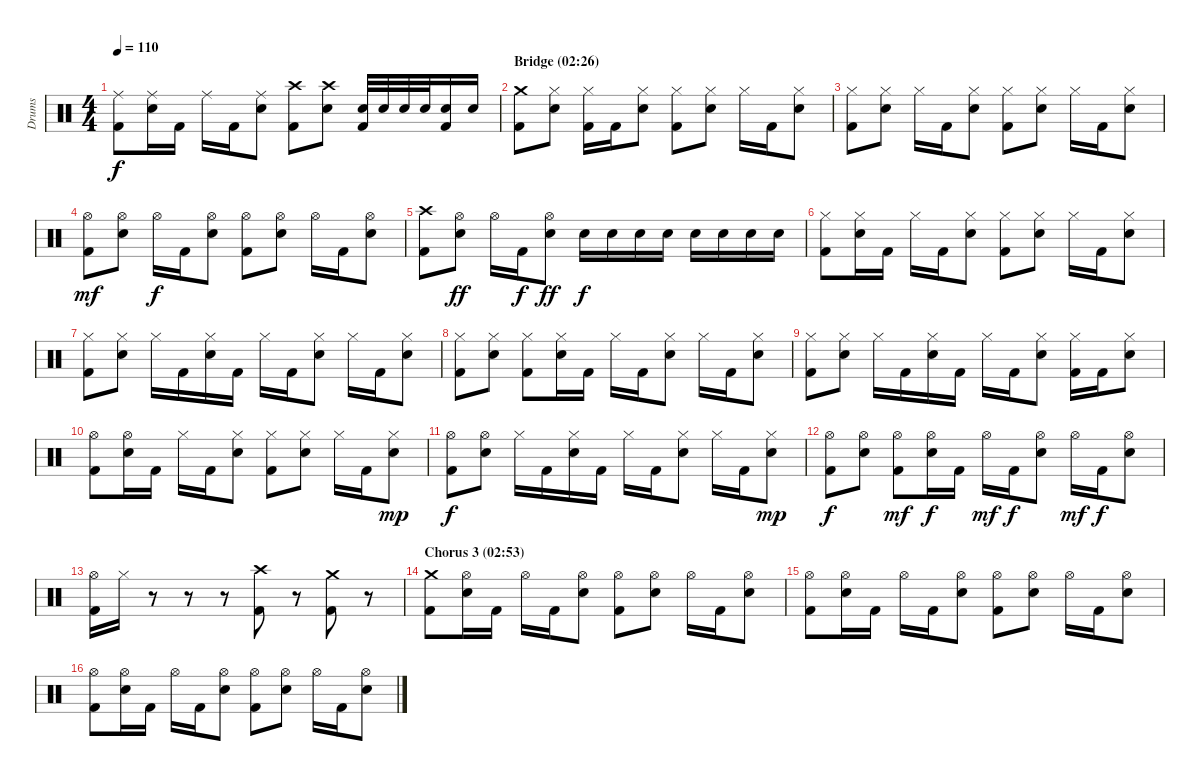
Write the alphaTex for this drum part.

\track ("Drums" "Drums") {instrument percussion}
\staff {score}
\articulation defaults
\ts (4 4)
\tempo 110
\clef neutral
\ks c
("Ride (middle)" "Kick (hit) 2").8{dy f} ("Ride (middle)" "Electric Snare (hit)").16 "Kick (hit) 2".16 "Ride (middle)".16 "Kick (hit) 2".16 ("Ride (middle)" "Electric Snare (hit)").8 ("Crash high (hit)" "Kick (hit) 2").8 ("Crash high (hit)" "Electric Snare (hit)").8 ("Electric Snare (hit)" "Kick (hit) 2").32 "Electric Snare (hit)".32 "Electric Snare (hit)".32 "Electric Snare (hit)".32 ("Electric Snare (hit)" "Kick (hit) 2").16 "Electric Snare (hit)".16 |
\section ("" "Bridge (02:26)")
("Crash medium (hit)" "Kick (hit) 2").8 ("Hi-Hat (closed)" "Electric Snare (hit)").8 ("Hi-Hat (closed)" "Kick (hit) 2").16 "Kick (hit) 2".16 ("Hi-Hat (closed)" "Electric Snare (hit)").8 ("Hi-Hat (closed)" "Kick (hit) 2").8 ("Hi-Hat (closed)" "Electric Snare (hit)").8 "Hi-Hat (closed)".16 "Kick (hit) 2".16 ("Hi-Hat (closed)" "Electric Snare (hit)").8 |
("Hi-Hat (closed)" "Kick (hit) 2").8 ("Hi-Hat (closed)" "Electric Snare (hit)").8 "Hi-Hat (closed)".16 "Kick (hit) 2".16 ("Hi-Hat (closed)" "Electric Snare (hit)").8 ("Hi-Hat (closed)" "Kick (hit) 2").8 ("Hi-Hat (closed)" "Electric Snare (hit)").8 "Hi-Hat (closed)".16 "Kick (hit) 2".16 ("Hi-Hat (closed)" "Electric Snare (hit)").8 |
("Hi-Hat (open)" "Kick (hit) 2").8{dy mf} ("Hi-Hat (open)" "Electric Snare (hit)").8 "Hi-Hat (open)".16{dy f} "Kick (hit) 2".16 ("Hi-Hat (open)" "Electric Snare (hit)").8 ("Hi-Hat (open)" "Kick (hit) 2").8 ("Hi-Hat (open)" "Electric Snare (hit)").8 "Hi-Hat (open)".16 "Kick (hit) 2".16 ("Hi-Hat (open)" "Electric Snare (hit)").8 |
("Crash high (hit)" "Kick (hit) 2").8 ("Hi-Hat (open)" "Electric Snare (hit)").8{dy ff} "Hi-Hat (open)".16 "Kick (hit) 2".16{dy f} ("Hi-Hat (open)" "Electric Snare (hit)").8{dy ff} "Electric Snare (hit)".16{dy f} "Electric Snare (hit)".16 "Electric Snare (hit)".16 "Electric Snare (hit)".16 "Electric Snare (hit)".16 "Electric Snare (hit)".16 "Electric Snare (hit)".16 "Electric Snare (hit)".16 |
\section ("" "")
("Hi-Hat (closed)" "Kick (hit) 2").8 ("Hi-Hat (closed)" "Electric Snare (hit)").16 "Kick (hit) 2".16 "Hi-Hat (closed)".16 "Kick (hit) 2".16 ("Hi-Hat (closed)" "Electric Snare (hit)").8 ("Hi-Hat (closed)" "Kick (hit) 2").8 ("Hi-Hat (closed)" "Electric Snare (hit)").8 "Hi-Hat (closed)".16 "Kick (hit) 2".16 ("Hi-Hat (closed)" "Electric Snare (hit)").8 |
("Hi-Hat (closed)" "Kick (hit) 2").8 ("Hi-Hat (closed)" "Electric Snare (hit)").8 "Hi-Hat (closed)".16 "Kick (hit) 2".16 ("Hi-Hat (closed)" "Electric Snare (hit)").16 "Kick (hit) 2".16 "Hi-Hat (closed)".16 "Kick (hit) 2".16 ("Hi-Hat (closed)" "Electric Snare (hit)").8 "Hi-Hat (closed)".16 "Kick (hit) 2".16 ("Hi-Hat (closed)" "Electric Snare (hit)").8 |
("Hi-Hat (closed)" "Kick (hit) 2").8 ("Hi-Hat (closed)" "Electric Snare (hit)").8 ("Hi-Hat (closed)" "Kick (hit) 2").8 ("Hi-Hat (closed)" "Electric Snare (hit)").16 "Kick (hit) 2".16 "Hi-Hat (closed)".16 "Kick (hit) 2".16 ("Hi-Hat (closed)" "Electric Snare (hit)").8 "Hi-Hat (closed)".16 "Kick (hit) 2".16 ("Hi-Hat (closed)" "Electric Snare (hit)").8 |
("Hi-Hat (closed)" "Kick (hit) 2").8 ("Hi-Hat (closed)" "Electric Snare (hit)").8 "Hi-Hat (closed)".16 "Kick (hit) 2".16 ("Hi-Hat (closed)" "Electric Snare (hit)").16 "Kick (hit) 2".16 "Hi-Hat (closed)".16 "Kick (hit) 2".16 ("Hi-Hat (closed)" "Electric Snare (hit)").8 ("Hi-Hat (closed)" "Kick (hit) 2").16 "Kick (hit) 2".16 ("Hi-Hat (closed)" "Electric Snare (hit)").8 |
("Hi-Hat (open)" "Kick (hit) 2").8 ("Hi-Hat (open)" "Electric Snare (hit)").16 "Kick (hit) 2".16 "Hi-Hat (closed)".16 "Kick (hit) 2".16 ("Hi-Hat (closed)" "Electric Snare (hit)").8 ("Hi-Hat (closed)" "Kick (hit) 2").8 ("Hi-Hat (closed)" "Electric Snare (hit)").8 "Hi-Hat (closed)".16 "Kick (hit) 2".16 ("Hi-Hat (closed)" "Electric Snare (hit)").8{dy mp} |
("Hi-Hat (open)" "Kick (hit) 2").8{dy f} ("Hi-Hat (open)" "Electric Snare (hit)").8 "Hi-Hat (closed)".16 "Kick (hit) 2".16 ("Hi-Hat (closed)" "Electric Snare (hit)").16 "Kick (hit) 2".16 "Hi-Hat (closed)".16 "Kick (hit) 2".16 ("Hi-Hat (closed)" "Electric Snare (hit)").8 "Hi-Hat (closed)".16 "Kick (hit) 2".16 ("Hi-Hat (closed)" "Electric Snare (hit)").8{dy mp} |
("Hi-Hat (open)" "Kick (hit) 2").8{dy f} ("Hi-Hat (open)" "Electric Snare (hit)").8 ("Hi-Hat (open)" "Kick (hit) 2").8{dy mf} ("Hi-Hat (open)" "Electric Snare (hit)").16{dy f} "Kick (hit) 2".16 "Hi-Hat (open)".16{dy mf} "Kick (hit) 2".16{dy f} ("Hi-Hat (open)" "Electric Snare (hit)").8 "Hi-Hat (open)".16{dy mf} "Kick (hit) 2".16{dy f} ("Hi-Hat (open)" "Electric Snare (hit)").8 |
("Hi-Hat (open)" "Kick (hit) 2").16 "Hi-Hat (closed)".16 r.8 r.8 r.8 ("Crash high (hit)" "Kick (hit) 2").8 r.8 ("Crash medium (hit)" "Kick (hit) 2").8 r.8 |
\section ("" "Chorus 3 (02:53)")
("Crash medium (hit)" "Kick (hit) 2").8 ("Hi-Hat (open)" "Electric Snare (hit)").16 "Kick (hit) 2".16 "Hi-Hat (open)".16 "Kick (hit) 2".16 ("Hi-Hat (open)" "Electric Snare (hit)").8 ("Hi-Hat (open)" "Kick (hit) 2").8 ("Hi-Hat (open)" "Electric Snare (hit)").8 "Hi-Hat (open)".16 "Kick (hit) 2".16 ("Hi-Hat (open)" "Electric Snare (hit)").8 |
("Hi-Hat (open)" "Kick (hit) 2").8 ("Hi-Hat (open)" "Electric Snare (hit)").16 "Kick (hit) 2".16 "Hi-Hat (open)".16 "Kick (hit) 2".16 ("Hi-Hat (open)" "Electric Snare (hit)").8 ("Hi-Hat (open)" "Kick (hit) 2").8 ("Hi-Hat (open)" "Electric Snare (hit)").8 "Hi-Hat (open)".16 "Kick (hit) 2".16 ("Hi-Hat (open)" "Electric Snare (hit)").8 |
("Hi-Hat (open)" "Kick (hit) 2").8 ("Hi-Hat (open)" "Electric Snare (hit)").16 "Kick (hit) 2".16 "Hi-Hat (open)".16 "Kick (hit) 2".16 ("Hi-Hat (open)" "Electric Snare (hit)").8 ("Hi-Hat (open)" "Kick (hit) 2").8 ("Hi-Hat (open)" "Electric Snare (hit)").8 "Hi-Hat (open)".16 "Kick (hit) 2".16 ("Hi-Hat (open)" "Electric Snare (hit)").8
